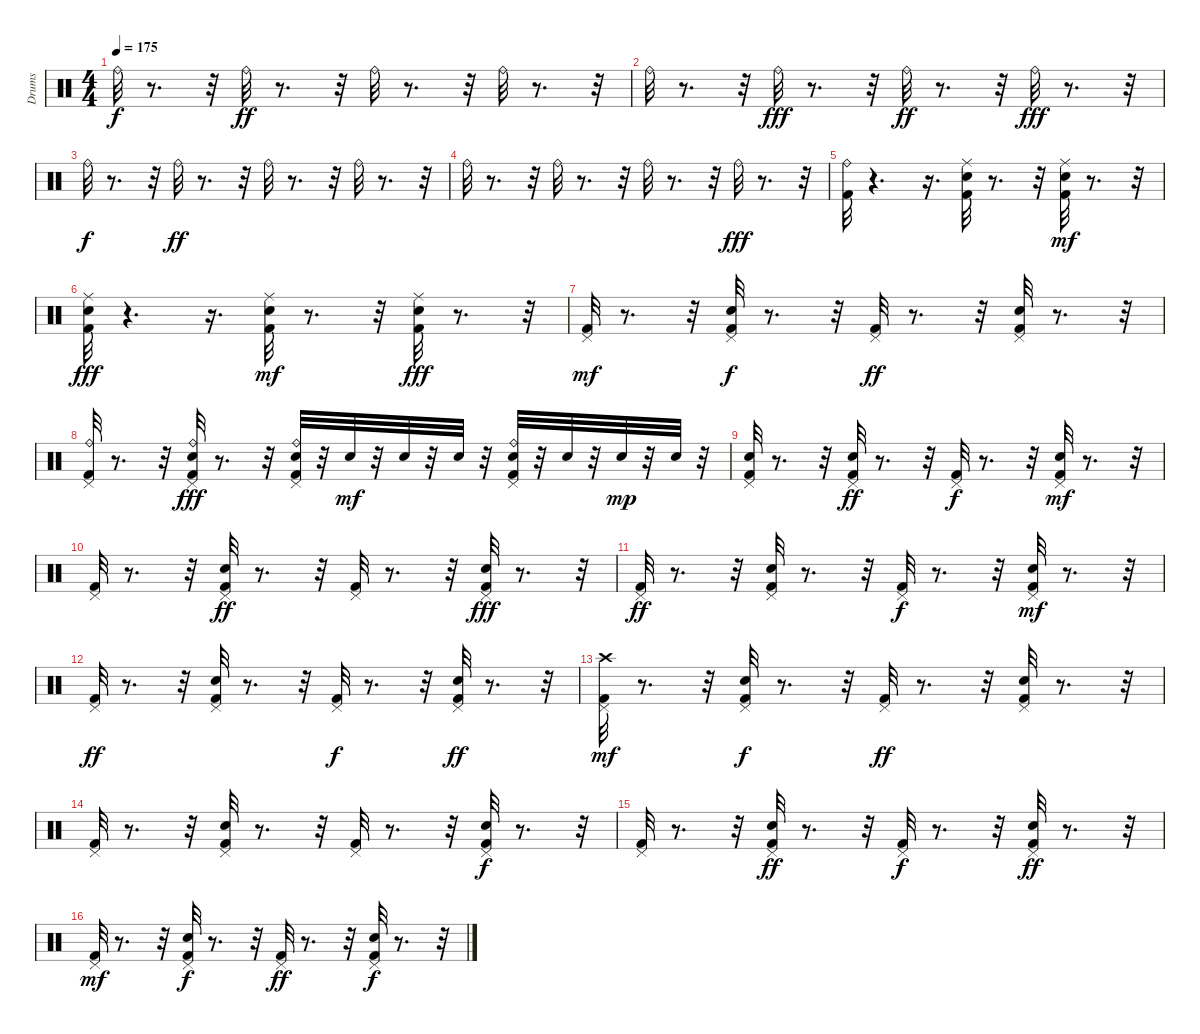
\track ("Drums" "Drums") {instrument percussion}
\staff {score}
\articulation defaults
\ts (4 4)
\tempo 175
\clef neutral
\ks c "Ride (bell)".32{dy f}
r.8{d} r.32 "Ride (bell)".32{dy ff} r.8{d} r.32 "Ride (bell)".32 r.8{d} r.32 "Ride (bell)".32 r.8{d} r.32 |
"Ride (bell)".32 r.8{d} r.32 "Ride (bell)".32{dy fff} r.8{d} r.32 "Ride (bell)".32{dy ff} r.8{d} r.32 "Ride (bell)".32{dy fff} r.8{d} r.32 |
"Ride (bell)".32{dy f} r.8{d} r.32 "Ride (bell)".32{dy ff} r.8{d} r.32 "Ride (bell)".32 r.8{d} r.32 "Ride (bell)".32 r.8{d} r.32 |
"Ride (bell)".32 r.8{d} r.32 "Ride (bell)".32 r.8{d} r.32 "Ride (bell)".32 r.8{d} r.32 "Ride (bell)".32{dy fff} r.8{d} r.32 |
("Ride (bell)" "Kick (hit) 2").32 r.4{d} r.16{d} ("Kick (hit) 2" "Snare (hit) 2" "Ride (middle)").32 r.8{d} r.32 ("Ride (middle)" "Snare (hit) 2" "Kick (hit) 2").32{dy mf} r.8{d} r.32 |
("Ride (middle)" "Snare (hit) 2" "Kick (hit) 2").32{dy fff} r.4{d} r.16{d} ("Ride (middle)" "Snare (hit) 2" "Kick (hit) 2").32{dy mf} r.8{d} r.32 ("Snare (hit) 2" "Ride (middle)" "Kick (hit) 2").32{dy fff} r.8{d} r.32 |
("Kick (hit) 2" "Pedal Hi-Hat (hit)").32{dy mf} r.8{d} r.32 ("Snare (hit) 2" "Kick (hit) 2" "Pedal Hi-Hat (hit)").32{dy f} r.8{d} r.32 ("Pedal Hi-Hat (hit)" "Kick (hit) 2").32{dy ff} r.8{d} r.32 ("Pedal Hi-Hat (hit)" "Kick (hit) 2" "Snare (hit) 2").32 r.8{d} r.32 |
("Ride (bell)" "Kick (hit) 2" "Pedal Hi-Hat (hit)").32 r.8{d} r.32 ("Pedal Hi-Hat (hit)" "Snare (hit) 2" "Kick (hit) 2" "Ride (bell)").32{dy fff} r.8{d} r.32 ("Pedal Hi-Hat (hit)" "Kick (hit) 2" "Snare (hit) 2" "Ride (bell)").32 r.32 "Snare (hit) 2".32{dy mf} r.32 "Snare (hit) 2".32 r.32 "Snare (hit) 2".32 r.32 ("Snare (hit) 2" "Ride (bell)" "Kick (hit) 2" "Pedal Hi-Hat (hit)").32 r.32 "Snare (hit) 2".32 r.32 "Snare (hit) 2".32{dy mp} r.32 "Snare (hit) 2".32 r.32 |
("Kick (hit) 2" "Pedal Hi-Hat (hit)" "Snare (hit) 2").32 r.8{d} r.32 ("Snare (hit) 2" "Pedal Hi-Hat (hit)" "Kick (hit) 2").32{dy ff} r.8{d} r.32 ("Pedal Hi-Hat (hit)" "Kick (hit) 2").32{dy f} r.8{d} r.32 ("Snare (hit) 2" "Pedal Hi-Hat (hit)" "Kick (hit) 2").32{dy mf} r.8{d} r.32 |
("Kick (hit) 2" "Pedal Hi-Hat (hit)").32 r.8{d} r.32 ("Kick (hit) 2" "Snare (hit) 2" "Pedal Hi-Hat (hit)").32{dy ff} r.8{d} r.32 ("Pedal Hi-Hat (hit)" "Kick (hit) 2").32 r.8{d} r.32 ("Pedal Hi-Hat (hit)" "Kick (hit) 2" "Snare (hit) 2").32{dy fff} r.8{d} r.32 |
("Pedal Hi-Hat (hit)" "Kick (hit) 2").32{dy ff} r.8{d} r.32 ("Kick (hit) 2" "Pedal Hi-Hat (hit)" "Snare (hit) 2").32 r.8{d} r.32 ("Kick (hit) 2" "Pedal Hi-Hat (hit)").32{dy f} r.8{d} r.32 ("Snare (hit) 2" "Pedal Hi-Hat (hit)" "Kick (hit) 2").32{dy mf} r.8{d} r.32 |
("Pedal Hi-Hat (hit)" "Kick (hit) 2").32{dy ff} r.8{d} r.32 ("Pedal Hi-Hat (hit)" "Snare (hit) 2" "Kick (hit) 2").32 r.8{d} r.32 ("Kick (hit) 2" "Pedal Hi-Hat (hit)").32{dy f} r.8{d} r.32 ("Kick (hit) 2" "Snare (hit) 2" "Pedal Hi-Hat (hit)").32{dy ff} r.8{d} r.32 |
("Crash high (hit)" "Kick (hit) 2" "Pedal Hi-Hat (hit)").32{dy mf} r.8{d} r.32 ("Snare (hit) 2" "Kick (hit) 2" "Pedal Hi-Hat (hit)").32{dy f} r.8{d} r.32 ("Kick (hit) 2" "Pedal Hi-Hat (hit)").32{dy ff} r.8{d} r.32 ("Pedal Hi-Hat (hit)" "Kick (hit) 2" "Snare (hit) 2").32 r.8{d} r.32 |
("Pedal Hi-Hat (hit)" "Kick (hit) 2").32 r.8{d} r.32 ("Pedal Hi-Hat (hit)" "Snare (hit) 2" "Kick (hit) 2").32 r.8{d} r.32 ("Pedal Hi-Hat (hit)" "Kick (hit) 2").32 r.8{d} r.32 ("Snare (hit) 2" "Pedal Hi-Hat (hit)" "Kick (hit) 2").32{dy f} r.8{d} r.32 |
("Kick (hit) 2" "Pedal Hi-Hat (hit)").32 r.8{d} r.32 ("Snare (hit) 2" "Kick (hit) 2" "Pedal Hi-Hat (hit)").32{dy ff} r.8{d} r.32 ("Pedal Hi-Hat (hit)" "Kick (hit) 2").32{dy f} r.8{d} r.32 ("Kick (hit) 2" "Pedal Hi-Hat (hit)" "Snare (hit) 2").32{dy ff} r.8{d} r.32 |
("Kick (hit) 2" "Pedal Hi-Hat (hit)").32{dy mf} r.8{d} r.32 ("Snare (hit) 2" "Pedal Hi-Hat (hit)" "Kick (hit) 2").32{dy f} r.8{d} r.32 ("Pedal Hi-Hat (hit)" "Kick (hit) 2").32{dy ff} r.8{d} r.32 ("Snare (hit) 2" "Pedal Hi-Hat (hit)" "Kick (hit) 2").32{dy f} r.8{d} r.32
